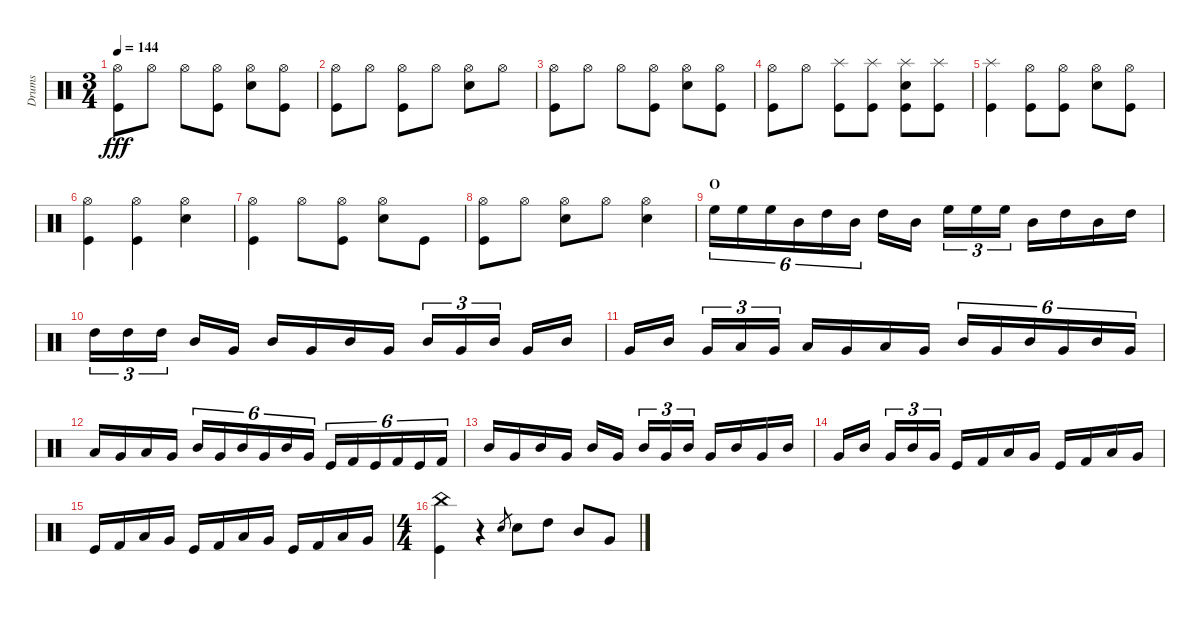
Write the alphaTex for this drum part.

\track ("Drums" "Drums") {instrument percussion}
\staff {score}
\articulation defaults
\ts (3 4)
\tempo 144
\clef neutral
\ks c
("Hi-Hat (open)" "Kick (hit)").8{dy fff} "Hi-Hat (open)".8 "Hi-Hat (open)".8 ("Hi-Hat (open)" "Kick (hit)").8 ("Hi-Hat (open)" "Snare (hit) 2").8 ("Hi-Hat (open)" "Kick (hit)").8 |
("Hi-Hat (open)" "Kick (hit)").8 "Hi-Hat (open)".8 ("Hi-Hat (open)" "Kick (hit)").8 "Hi-Hat (open)".8 ("Hi-Hat (open)" "Snare (hit) 2").8 "Hi-Hat (open)".8 |
("Hi-Hat (open)" "Kick (hit)").8 "Hi-Hat (open)".8 "Hi-Hat (open)".8 ("Hi-Hat (open)" "Kick (hit)").8 ("Hi-Hat (open)" "Snare (hit) 2").8 ("Hi-Hat (open)" "Kick (hit)").8 |
("Hi-Hat (open)" "Kick (hit)").8 "Hi-Hat (open)".8 ("Splash (hit)" "Kick (hit)").8 ("Splash (hit)" "Kick (hit)").8 ("Splash (hit)" "Snare (hit) 2" "Kick (hit)").8 ("Splash (hit)" "Kick (hit)").8 |
("Splash (hit)" "Kick (hit)").4 ("Hi-Hat (open)" "Kick (hit)").8 ("Hi-Hat (open)" "Kick (hit)").8 ("Hi-Hat (open)" "Snare (hit) 2").8 ("Hi-Hat (open)" "Kick (hit)").8 |
("Hi-Hat (open)" "Kick (hit)").4 ("Hi-Hat (open)" "Kick (hit)").4 ("Hi-Hat (open)" "Snare (hit) 2").4 |
("Hi-Hat (open)" "Kick (hit)").4 "Hi-Hat (open)".8 ("Hi-Hat (open)" "Kick (hit)").8 ("Hi-Hat (open)" "Snare (hit) 2").8 "Kick (hit)".8 |
("Hi-Hat (open)" "Kick (hit)").8 "Hi-Hat (open)".8 ("Hi-Hat (open)" "Snare (hit) 2").8 "Hi-Hat (open)".8 ("Hi-Hat (open)" "Snare (hit) 2").4 |
\section ("" "O")
"High Floor Tom (hit)".16{tu (6 4)} "High Floor Tom (hit)".16{tu (6 4)} "High Floor Tom (hit)".16{tu (6 4)} "Mid Tom (hit)".16{tu (6 4)} "High Tom (hit)".16{tu (6 4)} "Mid Tom (hit)".16{tu (6 4)} "High Tom (hit)".16 "Mid Tom (hit)".16 "High Floor Tom (hit)".16{tu (3 2)} "High Floor Tom (hit)".16{tu (3 2)} "High Floor Tom (hit)".16{tu (3 2)} "Mid Tom (hit)".16 "High Tom (hit)".16 "Mid Tom (hit)".16 "High Tom (hit)".16 |
"High Tom (hit)".16{tu (3 2)} "High Tom (hit)".16{tu (3 2)} "High Tom (hit)".16{tu (3 2)} "Mid Tom (hit)".16 "Very Low Tom (hit)".16 "Mid Tom (hit)".16 "Very Low Tom (hit)".16 "Mid Tom (hit)".16 "Very Low Tom (hit)".16 "Mid Tom (hit)".16{tu (3 2)} "Very Low Tom (hit)".16{tu (3 2)} "Mid Tom (hit)".16{tu (3 2)} "Very Low Tom (hit)".16 "Mid Tom (hit)".16 |
"Very Low Tom (hit)".16 "Mid Tom (hit)".16 "Very Low Tom (hit)".16{tu (3 2)} "Low Floor Tom (hit)".16{tu (3 2)} "Very Low Tom (hit)".16{tu (3 2)} "Low Floor Tom (hit)".16 "Very Low Tom (hit)".16 "Low Floor Tom (hit)".16 "Very Low Tom (hit)".16 "Mid Tom (hit)".16{tu (6 4)} "Very Low Tom (hit)".16{tu (6 4)} "Mid Tom (hit)".16{tu (6 4)} "Very Low Tom (hit)".16{tu (6 4)} "Mid Tom (hit)".16{tu (6 4)} "Very Low Tom (hit)".16{tu (6 4)} |
"Low Floor Tom (hit)".16 "Very Low Tom (hit)".16 "Low Floor Tom (hit)".16 "Very Low Tom (hit)".16 "Mid Tom (hit)".16{tu (6 4)} "Very Low Tom (hit)".16{tu (6 4)} "Mid Tom (hit)".16{tu (6 4)} "Very Low Tom (hit)".16{tu (6 4)} "Mid Tom (hit)".16{tu (6 4)} "Very Low Tom (hit)".16{tu (6 4)} "Kick (hit)".16{tu (6 4)} "Kick (hit) 2".16{tu (6 4)} "Kick (hit)".16{tu (6 4)} "Kick (hit) 2".16{tu (6 4)} "Kick (hit)".16{tu (6 4)} "Kick (hit) 2".16{tu (6 4)} |
"Mid Tom (hit)".16 "Very Low Tom (hit)".16 "Mid Tom (hit)".16 "Very Low Tom (hit)".16 "Mid Tom (hit)".16 "Very Low Tom (hit)".16 "Mid Tom (hit)".16{tu (3 2)} "Very Low Tom (hit)".16{tu (3 2)} "Mid Tom (hit)".16{tu (3 2)} "Very Low Tom (hit)".16 "Mid Tom (hit)".16 "Very Low Tom (hit)".16 "Mid Tom (hit)".16 |
"Very Low Tom (hit)".16 "Mid Tom (hit)".16 "Very Low Tom (hit)".16{tu (3 2)} "Mid Tom (hit)".16{tu (3 2)} "Very Low Tom (hit)".16{tu (3 2)} "Kick (hit)".16 "Kick (hit) 2".16 "Low Floor Tom (hit)".16 "Very Low Tom (hit)".16 "Kick (hit)".16 "Kick (hit) 2".16 "Low Floor Tom (hit)".16 "Very Low Tom (hit)".16 |
"Kick (hit)".16 "Kick (hit) 2".16 "Low Floor Tom (hit)".16 "Very Low Tom (hit)".16 "Kick (hit)".16 "Kick (hit) 2".16 "Low Floor Tom (hit)".16 "Very Low Tom (hit)".16 "Kick (hit)".16 "Kick (hit) 2".16 "Low Floor Tom (hit)".16 "Very Low Tom (hit)".16 |
\ts (4 4)
("China (hit)" "Kick (hit)").4 r.4 "Snare (hit) 2".8{gr} "Snare (hit) 2".8 "High Tom (hit)".8 "Mid Tom (hit)".8 "Very Low Tom (hit)".8
